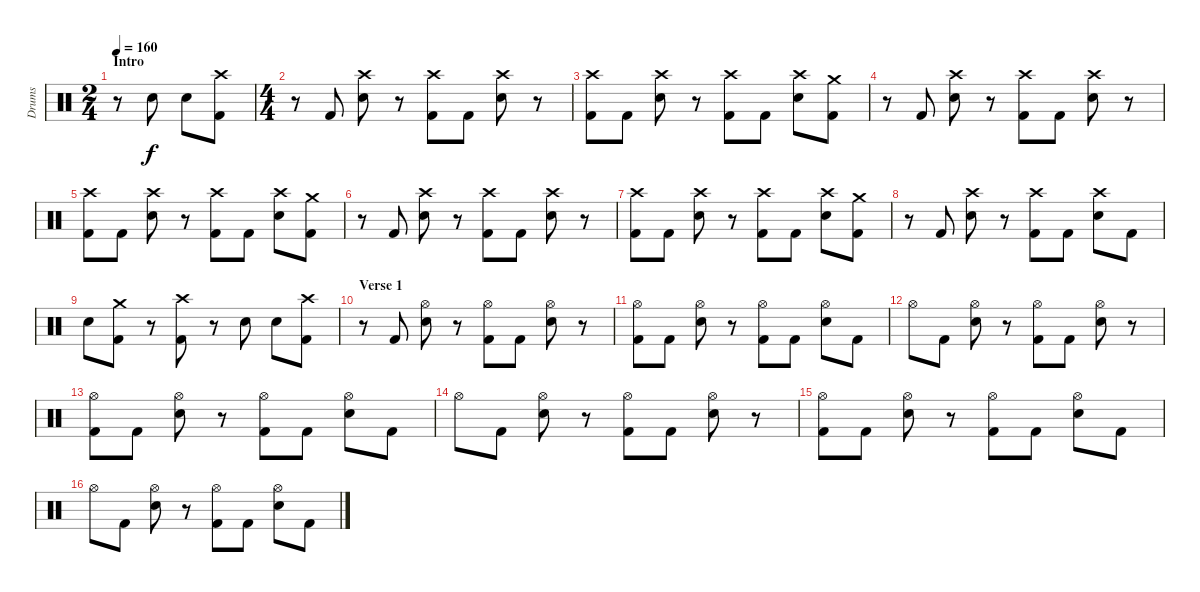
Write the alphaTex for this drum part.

\track ("Drums" "Drums") {instrument percussion}
\staff {score}
\articulation defaults
\ts (2 4)
\section ("" "Intro")
\tempo 160
\clef neutral
\ks c
r.8{dy f} "Snare (hit) 2".8 "Snare (hit) 2".8 ("Crash high (hit)" "Kick (hit) 2").8 |
\ts (4 4)
r.8 "Kick (hit) 2".8 ("Crash high (hit)" "Snare (hit) 2").8 r.8 ("Crash high (hit)" "Kick (hit) 2").8 "Kick (hit) 2".8 ("Crash high (hit)" "Snare (hit) 2").8 r.8 |
("Crash high (hit)" "Kick (hit) 2").8 "Kick (hit) 2".8 ("Crash high (hit)" "Snare (hit) 2").8 r.8 ("Crash high (hit)" "Kick (hit) 2").8 "Kick (hit) 2".8 ("Crash high (hit)" "Snare (hit) 2").8 ("Crash medium (hit)" "Kick (hit) 2").8 |
r.8 "Kick (hit) 2".8 ("Crash high (hit)" "Snare (hit) 2").8 r.8 ("Crash high (hit)" "Kick (hit) 2").8 "Kick (hit) 2".8 ("Crash high (hit)" "Snare (hit) 2").8 r.8 |
("Crash high (hit)" "Kick (hit) 2").8 "Kick (hit) 2".8 ("Crash high (hit)" "Snare (hit) 2").8 r.8 ("Crash high (hit)" "Kick (hit) 2").8 "Kick (hit) 2".8 ("Crash high (hit)" "Snare (hit) 2").8 ("Crash medium (hit)" "Kick (hit) 2").8 |
r.8 "Kick (hit) 2".8 ("Crash high (hit)" "Snare (hit) 2").8 r.8 ("Crash high (hit)" "Kick (hit) 2").8 "Kick (hit) 2".8 ("Crash high (hit)" "Snare (hit) 2").8 r.8 |
("Crash high (hit)" "Kick (hit) 2").8 "Kick (hit) 2".8 ("Crash high (hit)" "Snare (hit) 2").8 r.8 ("Crash high (hit)" "Kick (hit) 2").8 "Kick (hit) 2".8 ("Crash high (hit)" "Snare (hit) 2").8 ("Crash medium (hit)" "Kick (hit) 2").8 |
r.8 "Kick (hit) 2".8 ("Crash high (hit)" "Snare (hit) 2").8 r.8 ("Crash high (hit)" "Kick (hit) 2").8 "Kick (hit) 2".8 ("Crash high (hit)" "Snare (hit) 2").8 "Kick (hit) 2".8 |
"Snare (hit) 2".8 ("Crash medium (hit)" "Kick (hit) 2").8 r.8 ("Crash high (hit)" "Kick (hit) 2").8 r.8 "Snare (hit) 2".8 "Snare (hit) 2".8 ("Crash high (hit)" "Kick (hit) 2").8 |
\section ("" "Verse 1")
r.8 "Kick (hit) 2".8 ("Hi-Hat (open)" "Snare (hit) 2").8 r.8 ("Hi-Hat (open)" "Kick (hit) 2").8 "Kick (hit) 2".8 ("Hi-Hat (open)" "Snare (hit) 2").8 r.8 |
("Hi-Hat (open)" "Kick (hit) 2").8 "Kick (hit) 2".8 ("Hi-Hat (open)" "Snare (hit) 2").8 r.8 ("Hi-Hat (open)" "Kick (hit) 2").8 "Kick (hit) 2".8 ("Hi-Hat (open)" "Snare (hit) 2").8 "Kick (hit) 2".8 |
"Hi-Hat (open)".8 "Kick (hit) 2".8 ("Hi-Hat (open)" "Snare (hit) 2").8 r.8 ("Hi-Hat (open)" "Kick (hit) 2").8 "Kick (hit) 2".8 ("Hi-Hat (open)" "Snare (hit) 2").8 r.8 |
("Hi-Hat (open)" "Kick (hit) 2").8 "Kick (hit) 2".8 ("Hi-Hat (open)" "Snare (hit) 2").8 r.8 ("Hi-Hat (open)" "Kick (hit) 2").8 "Kick (hit) 2".8 ("Hi-Hat (open)" "Snare (hit) 2").8 "Kick (hit) 2".8 |
"Hi-Hat (open)".8 "Kick (hit) 2".8 ("Hi-Hat (open)" "Snare (hit) 2").8 r.8 ("Hi-Hat (open)" "Kick (hit) 2").8 "Kick (hit) 2".8 ("Hi-Hat (open)" "Snare (hit) 2").8 r.8 |
("Hi-Hat (open)" "Kick (hit) 2").8 "Kick (hit) 2".8 ("Hi-Hat (open)" "Snare (hit) 2").8 r.8 ("Hi-Hat (open)" "Kick (hit) 2").8 "Kick (hit) 2".8 ("Hi-Hat (open)" "Snare (hit) 2").8 "Kick (hit) 2".8 |
"Hi-Hat (open)".8 "Kick (hit) 2".8 ("Hi-Hat (open)" "Snare (hit) 2").8 r.8 ("Hi-Hat (open)" "Kick (hit) 2").8 "Kick (hit) 2".8 ("Hi-Hat (open)" "Snare (hit) 2").8 "Kick (hit) 2".8
